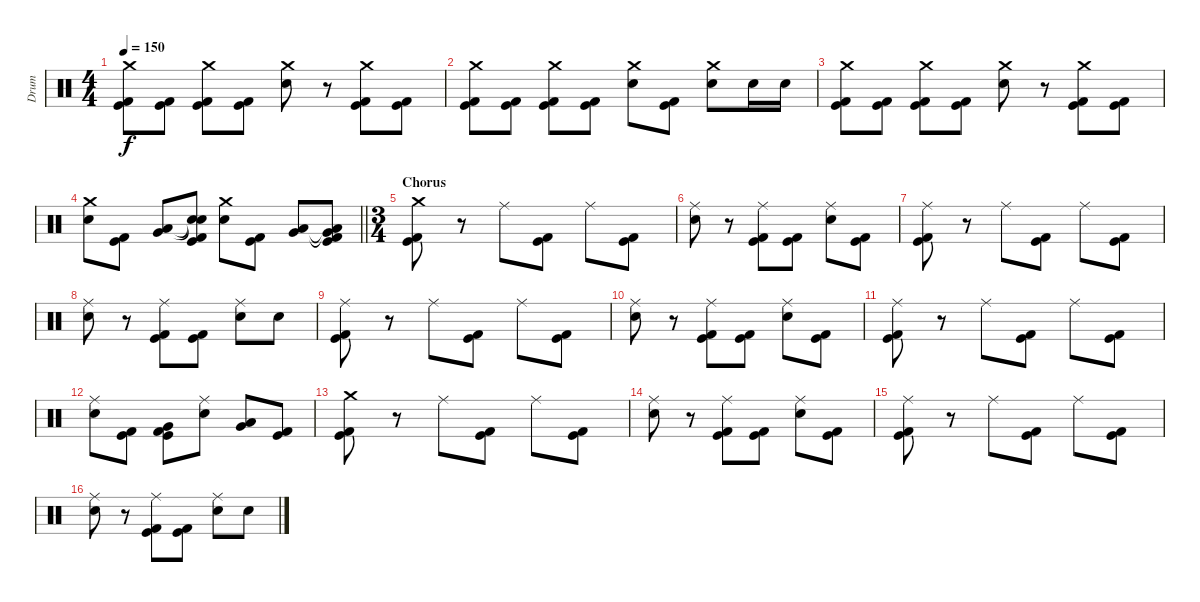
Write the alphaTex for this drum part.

\track ("Drum" "Drum") {instrument percussion}
\staff {score}
\articulation defaults
\ts (4 4)
\tempo 150
\clef neutral
\ks c
("Crash medium (hit)" "Kick (hit)" "Kick (hit) 2").8{dy f} ("Kick (hit)" "Kick (hit) 2").8 ("Crash medium (hit)" "Kick (hit)" "Kick (hit) 2").8 ("Kick (hit)" "Kick (hit) 2").8 ("Crash medium (hit)" "Electric Snare (hit)").8 r.8 ("Crash medium (hit)" "Kick (hit)" "Kick (hit) 2").8 ("Kick (hit)" "Kick (hit) 2").8 |
("Crash medium (hit)" "Kick (hit)" "Kick (hit) 2").8 ("Kick (hit)" "Kick (hit) 2").8 ("Crash medium (hit)" "Kick (hit)" "Kick (hit) 2").8 ("Kick (hit)" "Kick (hit) 2").8 ("Crash medium (hit)" "Electric Snare (hit)").8 ("Kick (hit)" "Kick (hit) 2").8 ("Crash medium (hit)" "Electric Snare (hit)").8 "Electric Snare (hit)".16 "Electric Snare (hit)".16 |
("Crash medium (hit)" "Kick (hit)" "Kick (hit) 2").8 ("Kick (hit)" "Kick (hit) 2").8 ("Crash medium (hit)" "Kick (hit)" "Kick (hit) 2").8 ("Kick (hit)" "Kick (hit) 2").8 ("Crash medium (hit)" "Electric Snare (hit)").8 r.8 ("Crash medium (hit)" "Kick (hit)" "Kick (hit) 2").8 ("Kick (hit)" "Kick (hit) 2").8 |
\barLineRight lightlight
("Crash medium (hit)" "Electric Snare (hit)").8 ("Kick (hit)" "Kick (hit) 2").8 ("Low Tom (hit)" "Very Low Tom (hit)").8 ("Snare (hit)"{t} "Snare (hit)"{t} "Kick (hit)" "Kick (hit) 2").8 ("Crash medium (hit)" "Electric Snare (hit)").8 ("Kick (hit)" "Kick (hit) 2").8 ("Low Tom (hit)" "Very Low Tom (hit)").8 ("Low Tom (hit)"{t} "Very Low Tom (hit)"{t} "Kick (hit)" "Kick (hit) 2").8 |
\ts (3 4)
\section ("" "Chorus")
("Crash medium (hit)" "Kick (hit)" "Kick (hit) 2").8 r.8 "Ride (middle)".8 ("Kick (hit)" "Kick (hit) 2").8 "Ride (middle)".8 ("Kick (hit)" "Kick (hit) 2").8 |
("Ride (middle)" "Electric Snare (hit)").8 r.8 ("Ride (middle)" "Kick (hit)" "Kick (hit) 2").8 ("Kick (hit)" "Kick (hit) 2").8 ("Ride (middle)" "Electric Snare (hit)").8 ("Kick (hit)" "Kick (hit) 2").8 |
("Ride (middle)" "Kick (hit)" "Kick (hit) 2").8 r.8 "Ride (middle)".8 ("Kick (hit)" "Kick (hit) 2").8 "Ride (middle)".8 ("Kick (hit)" "Kick (hit) 2").8 |
("Ride (middle)" "Electric Snare (hit)").8 r.8 ("Ride (middle)" "Kick (hit)" "Kick (hit) 2").8 ("Kick (hit)" "Kick (hit) 2").8 ("Ride (middle)" "Electric Snare (hit)").8 "Electric Snare (hit)".8 |
("Ride (middle)" "Kick (hit)" "Kick (hit) 2").8 r.8 "Ride (middle)".8 ("Kick (hit)" "Kick (hit) 2").8 "Ride (middle)".8 ("Kick (hit)" "Kick (hit) 2").8 |
("Ride (middle)" "Electric Snare (hit)").8 r.8 ("Ride (middle)" "Kick (hit)" "Kick (hit) 2").8 ("Kick (hit)" "Kick (hit) 2").8 ("Ride (middle)" "Electric Snare (hit)").8 ("Kick (hit)" "Kick (hit) 2").8 |
("Ride (middle)" "Kick (hit)" "Kick (hit) 2").8 r.8 "Ride (middle)".8 ("Kick (hit)" "Kick (hit) 2").8 "Ride (middle)".8 ("Kick (hit)" "Kick (hit) 2").8 |
("Ride (middle)" "Electric Snare (hit)").8 ("Kick (hit)" "Kick (hit) 2").8 ("Very Low Tom (hit)" "Kick (hit)" "Kick (hit) 2").8 ("Ride (middle)" "Electric Snare (hit)").8 ("Very Low Tom (hit)" "Low Tom (hit)").8 ("Kick (hit)" "Kick (hit) 2").8 |
("Crash medium (hit)" "Kick (hit)" "Kick (hit) 2").8 r.8 "Ride (middle)".8 ("Kick (hit)" "Kick (hit) 2").8 "Ride (middle)".8 ("Kick (hit)" "Kick (hit) 2").8 |
("Ride (middle)" "Electric Snare (hit)").8 r.8 ("Ride (middle)" "Kick (hit)" "Kick (hit) 2").8 ("Kick (hit)" "Kick (hit) 2").8 ("Ride (middle)" "Electric Snare (hit)").8 ("Kick (hit)" "Kick (hit) 2").8 |
("Ride (middle)" "Kick (hit)" "Kick (hit) 2").8 r.8 "Ride (middle)".8 ("Kick (hit)" "Kick (hit) 2").8 "Ride (middle)".8 ("Kick (hit)" "Kick (hit) 2").8 |
("Ride (middle)" "Electric Snare (hit)").8 r.8 ("Ride (middle)" "Kick (hit)" "Kick (hit) 2").8 ("Kick (hit)" "Kick (hit) 2").8 ("Ride (middle)" "Electric Snare (hit)").8 "Electric Snare (hit)".8
